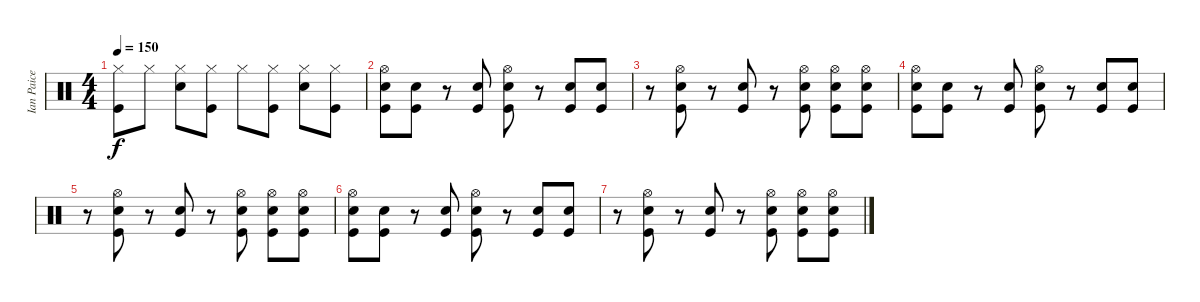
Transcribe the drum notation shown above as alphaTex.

\track ("Ian Paice" "Ian Paice") {instrument percussion}
\staff {score}
\articulation defaults
\ts (4 4)
\tempo 150
\clef neutral
\ks c
("Hi-Hat (closed)" "Kick (hit)").8{dy f} "Hi-Hat (closed)".8 ("Hi-Hat (closed)" "Snare (hit) 2").8 ("Hi-Hat (closed)" "Kick (hit)").8 "Hi-Hat (closed)".8 ("Hi-Hat (closed)" "Kick (hit)").8 ("Hi-Hat (closed)" "Snare (hit) 2").8 ("Hi-Hat (closed)" "Kick (hit)").8 |
("Hi-Hat (open)" "Snare (hit) 2" "Kick (hit)").8 ("Snare (hit) 2" "Kick (hit)").8 r.8 ("Snare (hit) 2" "Kick (hit)").8 ("Hi-Hat (open)" "Snare (hit) 2" "Kick (hit)").8 r.8 ("Snare (hit) 2" "Kick (hit)").8 ("Snare (hit) 2" "Kick (hit)").8 |
r.8 ("Hi-Hat (open)" "Snare (hit) 2" "Kick (hit)").8 r.8 ("Snare (hit) 2" "Kick (hit)").8 r.8 ("Hi-Hat (open)" "Snare (hit) 2" "Kick (hit)").8 ("Hi-Hat (open)" "Snare (hit) 2" "Kick (hit)").8 ("Hi-Hat (open)" "Snare (hit) 2" "Kick (hit)").8 |
("Hi-Hat (open)" "Snare (hit) 2" "Kick (hit)").8 ("Snare (hit) 2" "Kick (hit)").8 r.8 ("Snare (hit) 2" "Kick (hit)").8 ("Hi-Hat (open)" "Snare (hit) 2" "Kick (hit)").8 r.8 ("Snare (hit) 2" "Kick (hit)").8 ("Snare (hit) 2" "Kick (hit)").8 |
r.8 ("Hi-Hat (open)" "Snare (hit) 2" "Kick (hit)").8 r.8 ("Snare (hit) 2" "Kick (hit)").8 r.8 ("Hi-Hat (open)" "Snare (hit) 2" "Kick (hit)").8 ("Hi-Hat (open)" "Snare (hit) 2" "Kick (hit)").8 ("Hi-Hat (open)" "Snare (hit) 2" "Kick (hit)").8 |
("Hi-Hat (open)" "Snare (hit) 2" "Kick (hit)").8 ("Snare (hit) 2" "Kick (hit)").8 r.8 ("Snare (hit) 2" "Kick (hit)").8 ("Hi-Hat (open)" "Snare (hit) 2" "Kick (hit)").8 r.8 ("Snare (hit) 2" "Kick (hit)").8 ("Snare (hit) 2" "Kick (hit)").8 |
r.8 ("Hi-Hat (open)" "Snare (hit) 2" "Kick (hit)").8 r.8 ("Snare (hit) 2" "Kick (hit)").8 r.8 ("Hi-Hat (open)" "Snare (hit) 2" "Kick (hit)").8 ("Hi-Hat (open)" "Snare (hit) 2" "Kick (hit)").8 ("Hi-Hat (open)" "Snare (hit) 2" "Kick (hit)").8
